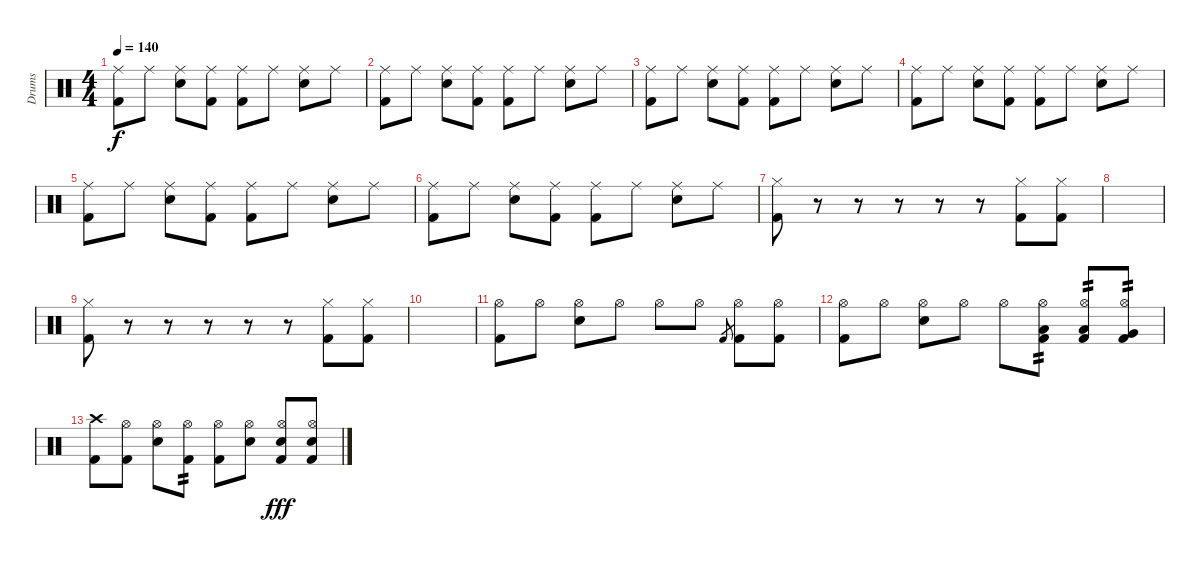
\track ("Drums" "Drums") {instrument percussion}
\staff {score}
\articulation defaults
\ts (4 4)
\tempo 140
\clef neutral
\ks c
("Ride (middle)" "Kick (hit) 2").8{dy f} "Ride (middle)".8 ("Ride (middle)" "Electric Snare (hit)").8 ("Ride (middle)" "Kick (hit) 2").8 ("Ride (middle)" "Kick (hit) 2").8 "Ride (middle)".8 ("Ride (middle)" "Electric Snare (hit)").8 "Ride (middle)".8 |
("Ride (middle)" "Kick (hit) 2").8 "Ride (middle)".8 ("Ride (middle)" "Electric Snare (hit)").8 ("Ride (middle)" "Kick (hit) 2").8 ("Ride (middle)" "Kick (hit) 2").8 "Ride (middle)".8 ("Ride (middle)" "Electric Snare (hit)").8 "Ride (middle)".8 |
("Ride (middle)" "Kick (hit) 2").8 "Ride (middle)".8 ("Ride (middle)" "Electric Snare (hit)").8 ("Ride (middle)" "Kick (hit) 2").8 ("Ride (middle)" "Kick (hit) 2").8 "Ride (middle)".8 ("Ride (middle)" "Electric Snare (hit)").8 "Ride (middle)".8 |
("Ride (middle)" "Kick (hit) 2").8 "Ride (middle)".8 ("Ride (middle)" "Electric Snare (hit)").8 ("Ride (middle)" "Kick (hit) 2").8 ("Ride (middle)" "Kick (hit) 2").8 "Ride (middle)".8 ("Ride (middle)" "Electric Snare (hit)").8 "Ride (middle)".8 |
("Ride (middle)" "Kick (hit) 2").8 "Ride (middle)".8 ("Ride (middle)" "Electric Snare (hit)").8 ("Ride (middle)" "Kick (hit) 2").8 ("Ride (middle)" "Kick (hit) 2").8 "Ride (middle)".8 ("Ride (middle)" "Electric Snare (hit)").8 "Ride (middle)".8 |
("Ride (middle)" "Kick (hit) 2").8 "Ride (middle)".8 ("Ride (middle)" "Electric Snare (hit)").8 ("Ride (middle)" "Kick (hit) 2").8 ("Ride (middle)" "Kick (hit) 2").8 "Ride (middle)".8 ("Ride (middle)" "Electric Snare (hit)").8 "Ride (middle)".8 |
("Hi-Hat (closed)" "Kick (hit) 2").8 r.8 r.8 r.8 r.8 r.8 ("Hi-Hat (closed)" "Kick (hit) 2").8 ("Hi-Hat (closed)" "Kick (hit) 2").8 |
|
("Hi-Hat (closed)" "Kick (hit) 2").8 r.8 r.8 r.8 r.8 r.8 ("Hi-Hat (closed)" "Kick (hit) 2").8 ("Hi-Hat (closed)" "Kick (hit) 2").8 |
|
("Hi-Hat (open)" "Kick (hit) 2").8 "Hi-Hat (open)".8 ("Hi-Hat (open)" "Electric Snare (hit)").8 "Hi-Hat (open)".8 "Hi-Hat (open)".8 "Hi-Hat (open)".8 "Kick (hit) 2".8{gr} ("Hi-Hat (open)" "Kick (hit) 2").8 ("Hi-Hat (open)" "Kick (hit) 2").8 |
("Hi-Hat (open)" "Kick (hit) 2").8 "Hi-Hat (open)".8 ("Hi-Hat (open)" "Electric Snare (hit)").8 "Hi-Hat (open)".8 "Hi-Hat (open)".8 ("Hi-Hat (open)" "Low Tom (hit)" "Kick (hit) 2").8{tp 2} ("Hi-Hat (open)" "Low Tom (hit)" "Kick (hit) 2").8{tp 2} ("Hi-Hat (open)" "Very Low Tom (hit)" "Kick (hit) 2").8{tp 2} |
("Crash high (hit)" "Kick (hit) 2").8 ("Hi-Hat (open)" "Kick (hit) 2").8 ("Hi-Hat (open)" "Electric Snare (hit)").8 ("Hi-Hat (open)" "Kick (hit) 2").8{tp 2} ("Hi-Hat (open)" "Kick (hit) 2").8 ("Hi-Hat (open)" "Electric Snare (hit)").8 ("Hi-Hat (open)" "Hand Clap (hit)" "Kick (hit) 2").8{dy fff} ("Hi-Hat (open)" "Hand Clap (hit)" "Kick (hit) 2").8
